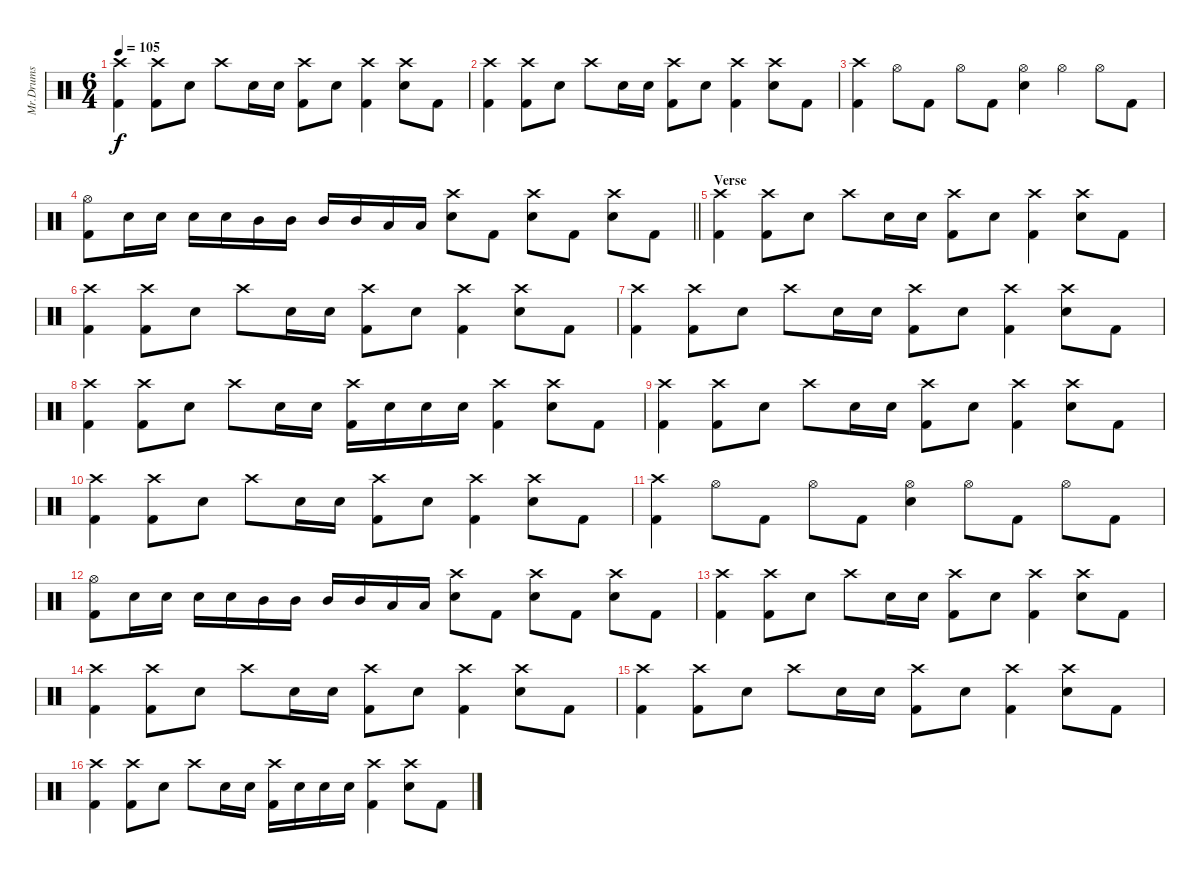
\track ("Mr.Drums" "Mr.Drums") {instrument percussion}
\staff {score}
\articulation defaults
\ts (6 4)
\tempo 105
\clef neutral
\ks c
("Crash high (hit)" "Kick (hit) 2").4{dy f} ("Crash high (hit)" "Kick (hit) 2").8 "Electric Snare (hit)".8 "Crash high (hit)".8 "Electric Snare (hit)".16 "Electric Snare (hit)".16 ("Crash high (hit)" "Kick (hit) 2").8 "Electric Snare (hit)".8 ("Crash high (hit)" "Kick (hit) 2").4 ("Crash high (hit)" "Electric Snare (hit)").8 "Kick (hit) 2".8 |
("Crash high (hit)" "Kick (hit) 2").4 ("Crash high (hit)" "Kick (hit) 2").8 "Electric Snare (hit)".8 "Crash high (hit)".8 "Electric Snare (hit)".16 "Electric Snare (hit)".16 ("Crash high (hit)" "Kick (hit) 2").8 "Electric Snare (hit)".8 ("Crash high (hit)" "Kick (hit) 2").4 ("Crash high (hit)" "Electric Snare (hit)").8 "Kick (hit) 2".8 |
("Crash high (hit)" "Kick (hit) 2").4 "Hi-Hat (open)".8 "Kick (hit) 2".8 "Hi-Hat (open)".8 "Kick (hit) 2".8 ("Hi-Hat (open)" "Electric Snare (hit)").4 "Hi-Hat (open)".4 "Hi-Hat (open)".8 "Kick (hit) 2".8 |
\barLineRight lightlight
("Hi-Hat (open)" "Kick (hit) 2").8 "Electric Snare (hit)".16 "Electric Snare (hit)".16 "Electric Snare (hit)".16 "Electric Snare (hit)".16 "Mid Tom (hit)".16 "Mid Tom (hit)".16 "Mid Tom (hit)".16 "Mid Tom (hit)".16 "Low Tom (hit)".16 "Low Tom (hit)".16 ("Crash high (hit)" "Electric Snare (hit)").8 "Kick (hit) 2".8 ("Crash high (hit)" "Electric Snare (hit)").8 "Kick (hit) 2".8 ("Crash high (hit)" "Electric Snare (hit)").8 "Kick (hit) 2".8 |
\section ("" "Verse")
("Crash high (hit)" "Kick (hit) 2").4 ("Crash high (hit)" "Kick (hit) 2").8 "Electric Snare (hit)".8 "Crash high (hit)".8 "Electric Snare (hit)".16 "Electric Snare (hit)".16 ("Crash high (hit)" "Kick (hit) 2").8 "Electric Snare (hit)".8 ("Crash high (hit)" "Kick (hit) 2").4 ("Crash high (hit)" "Electric Snare (hit)").8 "Kick (hit) 2".8 |
("Crash high (hit)" "Kick (hit) 2").4 ("Crash high (hit)" "Kick (hit) 2").8 "Electric Snare (hit)".8 "Crash high (hit)".8 "Electric Snare (hit)".16 "Electric Snare (hit)".16 ("Crash high (hit)" "Kick (hit) 2").8 "Electric Snare (hit)".8 ("Crash high (hit)" "Kick (hit) 2").4 ("Crash high (hit)" "Electric Snare (hit)").8 "Kick (hit) 2".8 |
("Crash high (hit)" "Kick (hit) 2").4 ("Crash high (hit)" "Kick (hit) 2").8 "Electric Snare (hit)".8 "Crash high (hit)".8 "Electric Snare (hit)".16 "Electric Snare (hit)".16 ("Crash high (hit)" "Kick (hit) 2").8 "Electric Snare (hit)".8 ("Crash high (hit)" "Kick (hit) 2").4 ("Crash high (hit)" "Electric Snare (hit)").8 "Kick (hit) 2".8 |
("Crash high (hit)" "Kick (hit) 2").4 ("Crash high (hit)" "Kick (hit) 2").8 "Electric Snare (hit)".8 "Crash high (hit)".8 "Electric Snare (hit)".16 "Electric Snare (hit)".16 ("Crash high (hit)" "Kick (hit) 2").16 "Electric Snare (hit)".16 "Electric Snare (hit)".16 "Electric Snare (hit)".16 ("Crash high (hit)" "Kick (hit) 2").4 ("Crash high (hit)" "Electric Snare (hit)").8 "Kick (hit) 2".8 |
("Crash high (hit)" "Kick (hit) 2").4 ("Crash high (hit)" "Kick (hit) 2").8 "Electric Snare (hit)".8 "Crash high (hit)".8 "Electric Snare (hit)".16 "Electric Snare (hit)".16 ("Crash high (hit)" "Kick (hit) 2").8 "Electric Snare (hit)".8 ("Crash high (hit)" "Kick (hit) 2").4 ("Crash high (hit)" "Electric Snare (hit)").8 "Kick (hit) 2".8 |
("Crash high (hit)" "Kick (hit) 2").4 ("Crash high (hit)" "Kick (hit) 2").8 "Electric Snare (hit)".8 "Crash high (hit)".8 "Electric Snare (hit)".16 "Electric Snare (hit)".16 ("Crash high (hit)" "Kick (hit) 2").8 "Electric Snare (hit)".8 ("Crash high (hit)" "Kick (hit) 2").4 ("Crash high (hit)" "Electric Snare (hit)").8 "Kick (hit) 2".8 |
("Crash high (hit)" "Kick (hit) 2").4 "Hi-Hat (open)".8 "Kick (hit) 2".8 "Hi-Hat (open)".8 "Kick (hit) 2".8 ("Hi-Hat (open)" "Electric Snare (hit)").4 "Hi-Hat (open)".8 "Kick (hit) 2".8 "Hi-Hat (open)".8 "Kick (hit) 2".8 |
("Hi-Hat (open)" "Kick (hit) 2").8 "Electric Snare (hit)".16 "Electric Snare (hit)".16 "Electric Snare (hit)".16 "Electric Snare (hit)".16 "Mid Tom (hit)".16 "Mid Tom (hit)".16 "Mid Tom (hit)".16 "Mid Tom (hit)".16 "Low Tom (hit)".16 "Low Tom (hit)".16 ("Crash high (hit)" "Electric Snare (hit)").8 "Kick (hit) 2".8 ("Crash high (hit)" "Electric Snare (hit)").8 "Kick (hit) 2".8 ("Crash high (hit)" "Electric Snare (hit)").8 "Kick (hit) 2".8 |
("Crash high (hit)" "Kick (hit) 2").4 ("Crash high (hit)" "Kick (hit) 2").8 "Electric Snare (hit)".8 "Crash high (hit)".8 "Electric Snare (hit)".16 "Electric Snare (hit)".16 ("Crash high (hit)" "Kick (hit) 2").8 "Electric Snare (hit)".8 ("Crash high (hit)" "Kick (hit) 2").4 ("Crash high (hit)" "Electric Snare (hit)").8 "Kick (hit) 2".8 |
("Crash high (hit)" "Kick (hit) 2").4 ("Crash high (hit)" "Kick (hit) 2").8 "Electric Snare (hit)".8 "Crash high (hit)".8 "Electric Snare (hit)".16 "Electric Snare (hit)".16 ("Crash high (hit)" "Kick (hit) 2").8 "Electric Snare (hit)".8 ("Crash high (hit)" "Kick (hit) 2").4 ("Crash high (hit)" "Electric Snare (hit)").8 "Kick (hit) 2".8 |
("Crash high (hit)" "Kick (hit) 2").4 ("Crash high (hit)" "Kick (hit) 2").8 "Electric Snare (hit)".8 "Crash high (hit)".8 "Electric Snare (hit)".16 "Electric Snare (hit)".16 ("Crash high (hit)" "Kick (hit) 2").8 "Electric Snare (hit)".8 ("Crash high (hit)" "Kick (hit) 2").4 ("Crash high (hit)" "Electric Snare (hit)").8 "Kick (hit) 2".8 |
("Crash high (hit)" "Kick (hit) 2").4 ("Crash high (hit)" "Kick (hit) 2").8 "Electric Snare (hit)".8 "Crash high (hit)".8 "Electric Snare (hit)".16 "Electric Snare (hit)".16 ("Crash high (hit)" "Kick (hit) 2").16 "Electric Snare (hit)".16 "Electric Snare (hit)".16 "Electric Snare (hit)".16 ("Crash high (hit)" "Kick (hit) 2").4 ("Crash high (hit)" "Electric Snare (hit)").8 "Kick (hit) 2".8
